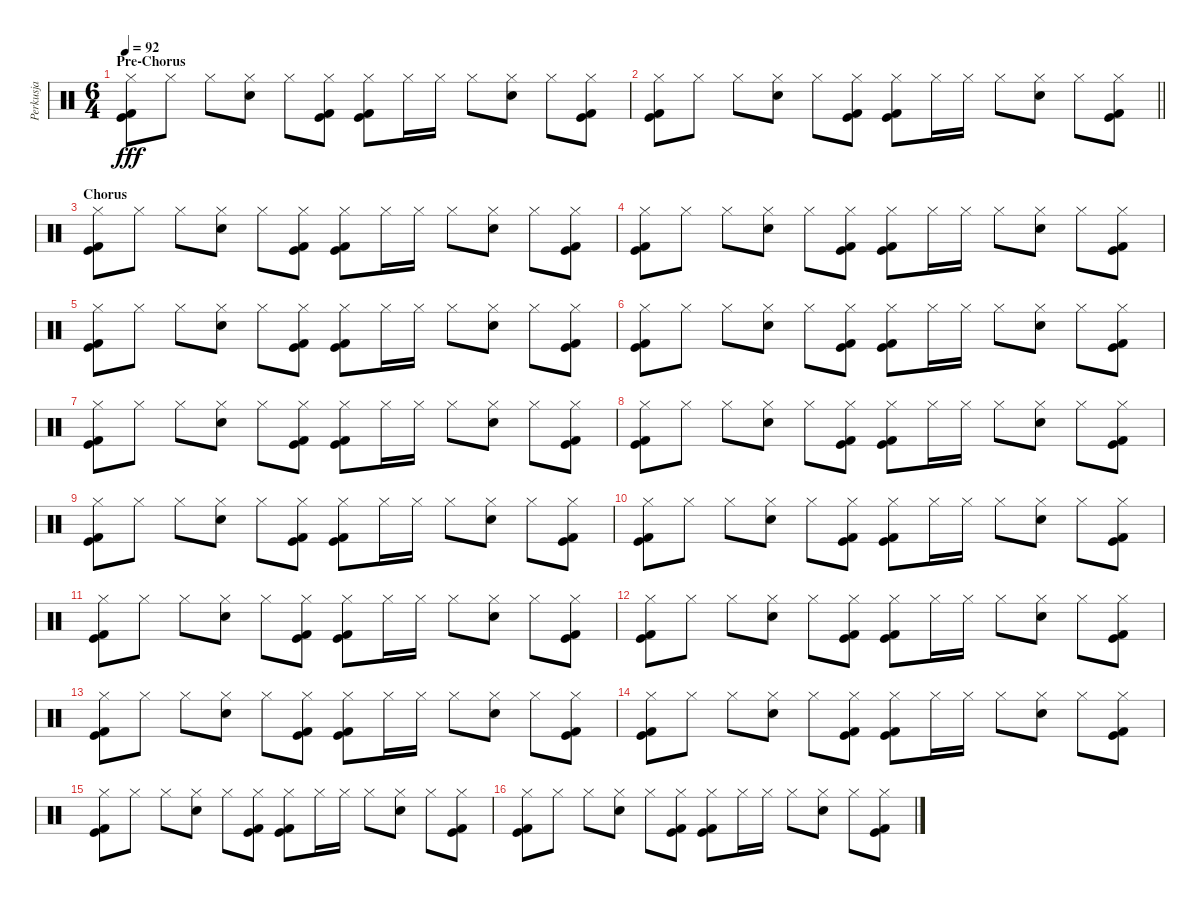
\track ("Perkusja" "Perkusja") {instrument percussion}
\staff {score}
\articulation defaults
\ts (6 4)
\section ("" "Pre-Chorus")
\tempo 92
\clef neutral
\ks c
("Hi-Hat (closed)" "Kick (hit)" "Kick (hit) 2").8{dy fff} "Hi-Hat (closed)".8 "Hi-Hat (closed)".8 ("Hi-Hat (closed)" "Electric Snare (hit)").8 "Hi-Hat (closed)".8 ("Hi-Hat (closed)" "Kick (hit)" "Kick (hit) 2").8 ("Hi-Hat (closed)" "Kick (hit)" "Kick (hit) 2").8 "Hi-Hat (closed)".16 "Hi-Hat (closed)".16 "Hi-Hat (closed)".8 ("Hi-Hat (closed)" "Electric Snare (hit)").8 "Hi-Hat (closed)".8 ("Hi-Hat (closed)" "Kick (hit)" "Kick (hit) 2").8 |
\barLineRight lightlight
("Hi-Hat (closed)" "Kick (hit)" "Kick (hit) 2").8 "Hi-Hat (closed)".8 "Hi-Hat (closed)".8 ("Hi-Hat (closed)" "Electric Snare (hit)").8 "Hi-Hat (closed)".8 ("Hi-Hat (closed)" "Kick (hit)" "Kick (hit) 2").8 ("Hi-Hat (closed)" "Kick (hit)" "Kick (hit) 2").8 "Hi-Hat (closed)".16 "Hi-Hat (closed)".16 "Hi-Hat (closed)".8 ("Hi-Hat (closed)" "Electric Snare (hit)").8 "Hi-Hat (closed)".8 ("Hi-Hat (closed)" "Kick (hit)" "Kick (hit) 2").8 |
\section ("" "Chorus")
("Hi-Hat (closed)" "Kick (hit)" "Kick (hit) 2").8 "Hi-Hat (closed)".8 "Hi-Hat (closed)".8 ("Hi-Hat (closed)" "Electric Snare (hit)").8 "Hi-Hat (closed)".8 ("Hi-Hat (closed)" "Kick (hit)" "Kick (hit) 2").8 ("Hi-Hat (closed)" "Kick (hit)" "Kick (hit) 2").8 "Hi-Hat (closed)".16 "Hi-Hat (closed)".16 "Hi-Hat (closed)".8 ("Hi-Hat (closed)" "Electric Snare (hit)").8 "Hi-Hat (closed)".8 ("Hi-Hat (closed)" "Kick (hit)" "Kick (hit) 2").8 |
("Hi-Hat (closed)" "Kick (hit)" "Kick (hit) 2").8 "Hi-Hat (closed)".8 "Hi-Hat (closed)".8 ("Hi-Hat (closed)" "Electric Snare (hit)").8 "Hi-Hat (closed)".8 ("Hi-Hat (closed)" "Kick (hit)" "Kick (hit) 2").8 ("Hi-Hat (closed)" "Kick (hit)" "Kick (hit) 2").8 "Hi-Hat (closed)".16 "Hi-Hat (closed)".16 "Hi-Hat (closed)".8 ("Hi-Hat (closed)" "Electric Snare (hit)").8 "Hi-Hat (closed)".8 ("Hi-Hat (closed)" "Kick (hit)" "Kick (hit) 2").8 |
("Hi-Hat (closed)" "Kick (hit)" "Kick (hit) 2").8 "Hi-Hat (closed)".8 "Hi-Hat (closed)".8 ("Hi-Hat (closed)" "Electric Snare (hit)").8 "Hi-Hat (closed)".8 ("Hi-Hat (closed)" "Kick (hit)" "Kick (hit) 2").8 ("Hi-Hat (closed)" "Kick (hit)" "Kick (hit) 2").8 "Hi-Hat (closed)".16 "Hi-Hat (closed)".16 "Hi-Hat (closed)".8 ("Hi-Hat (closed)" "Electric Snare (hit)").8 "Hi-Hat (closed)".8 ("Hi-Hat (closed)" "Kick (hit)" "Kick (hit) 2").8 |
("Hi-Hat (closed)" "Kick (hit)" "Kick (hit) 2").8 "Hi-Hat (closed)".8 "Hi-Hat (closed)".8 ("Hi-Hat (closed)" "Electric Snare (hit)").8 "Hi-Hat (closed)".8 ("Hi-Hat (closed)" "Kick (hit)" "Kick (hit) 2").8 ("Hi-Hat (closed)" "Kick (hit)" "Kick (hit) 2").8 "Hi-Hat (closed)".16 "Hi-Hat (closed)".16 "Hi-Hat (closed)".8 ("Hi-Hat (closed)" "Electric Snare (hit)").8 "Hi-Hat (closed)".8 ("Hi-Hat (closed)" "Kick (hit)" "Kick (hit) 2").8 |
("Hi-Hat (closed)" "Kick (hit)" "Kick (hit) 2").8 "Hi-Hat (closed)".8 "Hi-Hat (closed)".8 ("Hi-Hat (closed)" "Electric Snare (hit)").8 "Hi-Hat (closed)".8 ("Hi-Hat (closed)" "Kick (hit)" "Kick (hit) 2").8 ("Hi-Hat (closed)" "Kick (hit)" "Kick (hit) 2").8 "Hi-Hat (closed)".16 "Hi-Hat (closed)".16 "Hi-Hat (closed)".8 ("Hi-Hat (closed)" "Electric Snare (hit)").8 "Hi-Hat (closed)".8 ("Hi-Hat (closed)" "Kick (hit)" "Kick (hit) 2").8 |
("Hi-Hat (closed)" "Kick (hit)" "Kick (hit) 2").8 "Hi-Hat (closed)".8 "Hi-Hat (closed)".8 ("Hi-Hat (closed)" "Electric Snare (hit)").8 "Hi-Hat (closed)".8 ("Hi-Hat (closed)" "Kick (hit)" "Kick (hit) 2").8 ("Hi-Hat (closed)" "Kick (hit)" "Kick (hit) 2").8 "Hi-Hat (closed)".16 "Hi-Hat (closed)".16 "Hi-Hat (closed)".8 ("Hi-Hat (closed)" "Electric Snare (hit)").8 "Hi-Hat (closed)".8 ("Hi-Hat (closed)" "Kick (hit)" "Kick (hit) 2").8 |
("Hi-Hat (closed)" "Kick (hit)" "Kick (hit) 2").8 "Hi-Hat (closed)".8 "Hi-Hat (closed)".8 ("Hi-Hat (closed)" "Electric Snare (hit)").8 "Hi-Hat (closed)".8 ("Hi-Hat (closed)" "Kick (hit)" "Kick (hit) 2").8 ("Hi-Hat (closed)" "Kick (hit)" "Kick (hit) 2").8 "Hi-Hat (closed)".16 "Hi-Hat (closed)".16 "Hi-Hat (closed)".8 ("Hi-Hat (closed)" "Electric Snare (hit)").8 "Hi-Hat (closed)".8 ("Hi-Hat (closed)" "Kick (hit)" "Kick (hit) 2").8 |
("Hi-Hat (closed)" "Kick (hit)" "Kick (hit) 2").8 "Hi-Hat (closed)".8 "Hi-Hat (closed)".8 ("Hi-Hat (closed)" "Electric Snare (hit)").8 "Hi-Hat (closed)".8 ("Hi-Hat (closed)" "Kick (hit)" "Kick (hit) 2").8 ("Hi-Hat (closed)" "Kick (hit)" "Kick (hit) 2").8 "Hi-Hat (closed)".16 "Hi-Hat (closed)".16 "Hi-Hat (closed)".8 ("Hi-Hat (closed)" "Electric Snare (hit)").8 "Hi-Hat (closed)".8 ("Hi-Hat (closed)" "Kick (hit)" "Kick (hit) 2").8 |
("Hi-Hat (closed)" "Kick (hit)" "Kick (hit) 2").8 "Hi-Hat (closed)".8 "Hi-Hat (closed)".8 ("Hi-Hat (closed)" "Electric Snare (hit)").8 "Hi-Hat (closed)".8 ("Hi-Hat (closed)" "Kick (hit)" "Kick (hit) 2").8 ("Hi-Hat (closed)" "Kick (hit)" "Kick (hit) 2").8 "Hi-Hat (closed)".16 "Hi-Hat (closed)".16 "Hi-Hat (closed)".8 ("Hi-Hat (closed)" "Electric Snare (hit)").8 "Hi-Hat (closed)".8 ("Hi-Hat (closed)" "Kick (hit)" "Kick (hit) 2").8 |
("Hi-Hat (closed)" "Kick (hit)" "Kick (hit) 2").8 "Hi-Hat (closed)".8 "Hi-Hat (closed)".8 ("Hi-Hat (closed)" "Electric Snare (hit)").8 "Hi-Hat (closed)".8 ("Hi-Hat (closed)" "Kick (hit)" "Kick (hit) 2").8 ("Hi-Hat (closed)" "Kick (hit)" "Kick (hit) 2").8 "Hi-Hat (closed)".16 "Hi-Hat (closed)".16 "Hi-Hat (closed)".8 ("Hi-Hat (closed)" "Electric Snare (hit)").8 "Hi-Hat (closed)".8 ("Hi-Hat (closed)" "Kick (hit)" "Kick (hit) 2").8 |
("Hi-Hat (closed)" "Kick (hit)" "Kick (hit) 2").8 "Hi-Hat (closed)".8 "Hi-Hat (closed)".8 ("Hi-Hat (closed)" "Electric Snare (hit)").8 "Hi-Hat (closed)".8 ("Hi-Hat (closed)" "Kick (hit)" "Kick (hit) 2").8 ("Hi-Hat (closed)" "Kick (hit)" "Kick (hit) 2").8 "Hi-Hat (closed)".16 "Hi-Hat (closed)".16 "Hi-Hat (closed)".8 ("Hi-Hat (closed)" "Electric Snare (hit)").8 "Hi-Hat (closed)".8 ("Hi-Hat (closed)" "Kick (hit)" "Kick (hit) 2").8 |
("Hi-Hat (closed)" "Kick (hit)" "Kick (hit) 2").8 "Hi-Hat (closed)".8 "Hi-Hat (closed)".8 ("Hi-Hat (closed)" "Electric Snare (hit)").8 "Hi-Hat (closed)".8 ("Hi-Hat (closed)" "Kick (hit)" "Kick (hit) 2").8 ("Hi-Hat (closed)" "Kick (hit)" "Kick (hit) 2").8 "Hi-Hat (closed)".16 "Hi-Hat (closed)".16 "Hi-Hat (closed)".8 ("Hi-Hat (closed)" "Electric Snare (hit)").8 "Hi-Hat (closed)".8 ("Hi-Hat (closed)" "Kick (hit)" "Kick (hit) 2").8 |
("Hi-Hat (closed)" "Kick (hit)" "Kick (hit) 2").8 "Hi-Hat (closed)".8 "Hi-Hat (closed)".8 ("Hi-Hat (closed)" "Electric Snare (hit)").8 "Hi-Hat (closed)".8 ("Hi-Hat (closed)" "Kick (hit)" "Kick (hit) 2").8 ("Hi-Hat (closed)" "Kick (hit)" "Kick (hit) 2").8 "Hi-Hat (closed)".16 "Hi-Hat (closed)".16 "Hi-Hat (closed)".8 ("Hi-Hat (closed)" "Electric Snare (hit)").8 "Hi-Hat (closed)".8 ("Hi-Hat (closed)" "Kick (hit)" "Kick (hit) 2").8 |
("Hi-Hat (closed)" "Kick (hit)" "Kick (hit) 2").8 "Hi-Hat (closed)".8 "Hi-Hat (closed)".8 ("Hi-Hat (closed)" "Electric Snare (hit)").8 "Hi-Hat (closed)".8 ("Hi-Hat (closed)" "Kick (hit)" "Kick (hit) 2").8 ("Hi-Hat (closed)" "Kick (hit)" "Kick (hit) 2").8 "Hi-Hat (closed)".16 "Hi-Hat (closed)".16 "Hi-Hat (closed)".8 ("Hi-Hat (closed)" "Electric Snare (hit)").8 "Hi-Hat (closed)".8 ("Hi-Hat (closed)" "Kick (hit)" "Kick (hit) 2").8
